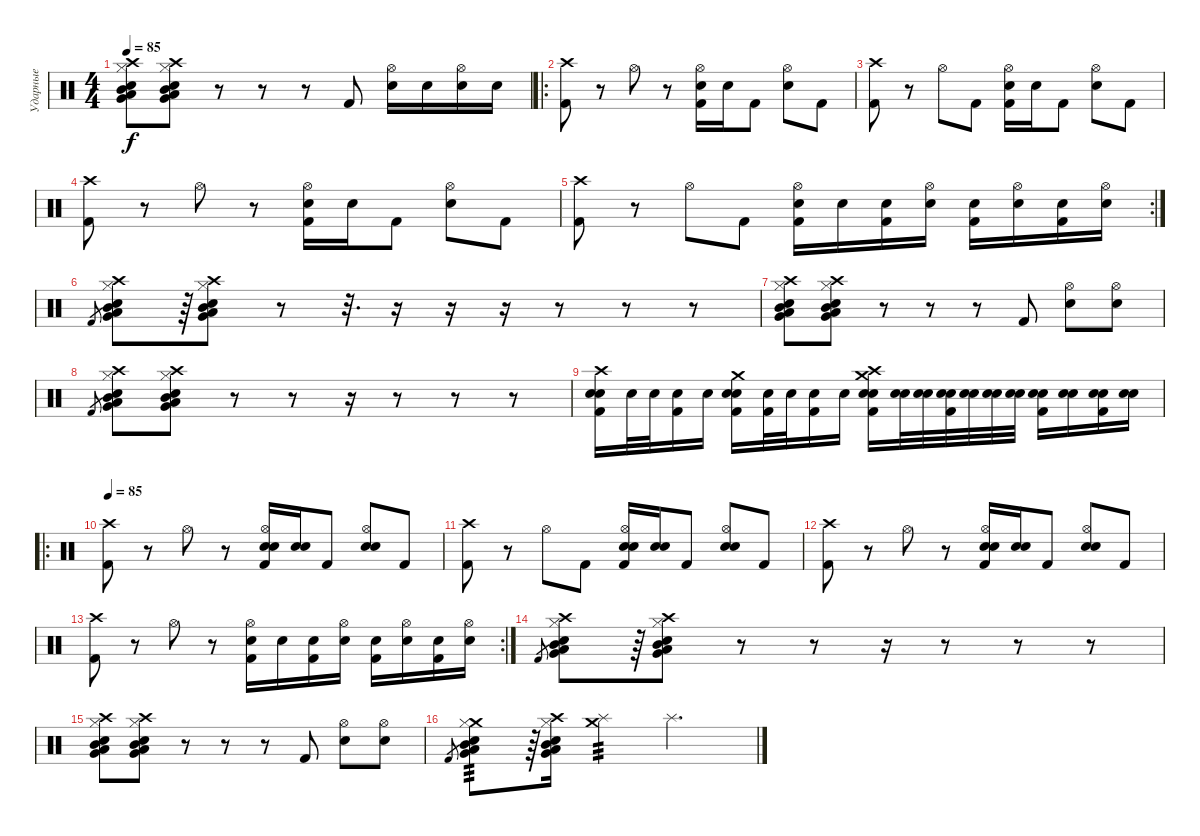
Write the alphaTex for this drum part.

\track ("Ударные" "Ударные") {instrument percussion}
\staff {score}
\articulation defaults
\ts (4 4)
\tempo 85
\clef neutral
\ks c
("Crash high (hit)" "Very Low Tom (hit)" "Low Floor Tom (hit)" "Mid Tom (hit)" "Electric Snare (hit)" "Hi-Hat (closed)").8{dy f} ("Crash high (hit)" "Very Low Tom (hit)" "Low Floor Tom (hit)" "Mid Tom (hit)" "Electric Snare (hit)" "Hi-Hat (closed)").8 r.8 r.8 r.8 "Kick (hit) 2".8 ("Hi-Hat (open)" "Electric Snare (hit)").16 "Electric Snare (hit)".16 ("Hi-Hat (open)" "Electric Snare (hit)").16 "Electric Snare (hit)".16 |
\ro
("Crash high (hit)" "Kick (hit) 2").8{volume 14} r.8 "Hi-Hat (open)".8 r.8 ("Hi-Hat (open)" "Electric Snare (hit)" "Kick (hit) 2").16 "Electric Snare (hit)".16 "Kick (hit) 2".8 ("Hi-Hat (open)" "Electric Snare (hit)").8 "Kick (hit) 2".8 |
("Crash high (hit)" "Kick (hit) 2").8 r.8 "Hi-Hat (open)".8 "Kick (hit) 2".8 ("Hi-Hat (open)" "Electric Snare (hit)" "Kick (hit) 2").16 "Electric Snare (hit)".16 "Kick (hit) 2".8 ("Hi-Hat (open)" "Electric Snare (hit)").8 "Kick (hit) 2".8 |
("Crash high (hit)" "Kick (hit) 2").8 r.8 "Hi-Hat (open)".8 r.8 ("Hi-Hat (open)" "Electric Snare (hit)" "Kick (hit) 2").16 "Electric Snare (hit)".16 "Kick (hit) 2".8 ("Hi-Hat (open)" "Electric Snare (hit)").8 "Kick (hit) 2".8 |
\rc 2
("Crash high (hit)" "Kick (hit) 2").8 r.8 "Hi-Hat (open)".8 "Kick (hit) 2".8 ("Hi-Hat (open)" "Electric Snare (hit)" "Kick (hit) 2").16 "Electric Snare (hit)".16 ("Electric Snare (hit)" "Kick (hit) 2").16 ("Hi-Hat (open)" "Electric Snare (hit)").16 ("Electric Snare (hit)" "Kick (hit) 2").16 ("Hi-Hat (open)" "Electric Snare (hit)").16 ("Electric Snare (hit)" "Kick (hit) 2").16 ("Hi-Hat (open)" "Electric Snare (hit)").16 |
"Kick (hit) 2".8{gr} ("Crash high (hit)" "Very Low Tom (hit)" "Low Floor Tom (hit)" "Mid Tom (hit)" "Electric Snare (hit)" "Hi-Hat (closed)").8 r.64 ("Crash high (hit)" "Very Low Tom (hit)" "Low Floor Tom (hit)" "Mid Tom (hit)" "Electric Snare (hit)" "Hi-Hat (closed)").8 r.8 r.32{d} r.16 r.16 r.16 r.8 r.8 r.8 |
("Crash high (hit)" "Very Low Tom (hit)" "Low Floor Tom (hit)" "Mid Tom (hit)" "Electric Snare (hit)" "Hi-Hat (closed)").8 ("Crash high (hit)" "Very Low Tom (hit)" "Low Floor Tom (hit)" "Mid Tom (hit)" "Electric Snare (hit)" "Hi-Hat (closed)").8 r.8 r.8 r.8 "Kick (hit) 2".8 ("Hi-Hat (open)" "Electric Snare (hit)").8 ("Hi-Hat (open)" "Electric Snare (hit)").8 |
"Kick (hit) 2".8{gr} ("Crash high (hit)" "Very Low Tom (hit)" "Low Floor Tom (hit)" "Mid Tom (hit)" "Electric Snare (hit)" "Hi-Hat (closed)").8 ("Crash high (hit)" "Very Low Tom (hit)" "Low Floor Tom (hit)" "Mid Tom (hit)" "Electric Snare (hit)" "Hi-Hat (closed)").8 r.8 r.8 r.16 r.8 r.8 r.8 |
("Crash high (hit)" "Electric Snare (hit)" "Snare (hit) 2" "Kick (hit) 2").16 "Electric Snare (hit)".32 "Electric Snare (hit)".32 ("Electric Snare (hit)" "Kick (hit) 2").16 "Electric Snare (hit)".16 ("Crash medium (hit)" "Electric Snare (hit)" "Snare (hit) 2" "Kick (hit) 2").16 ("Electric Snare (hit)" "Kick (hit) 2").32 "Electric Snare (hit)".32 ("Electric Snare (hit)" "Kick (hit) 2").16 "Electric Snare (hit)".16 ("Crash high (hit)" "Crash medium (hit)" "Electric Snare (hit)" "Snare (hit) 2" "Kick (hit) 2").16 ("Electric Snare (hit)" "Snare (hit) 2").32 ("Electric Snare (hit)" "Snare (hit) 2").32 ("Electric Snare (hit)" "Snare (hit) 2" "Kick (hit) 2").32 ("Electric Snare (hit)" "Snare (hit) 2").32 ("Electric Snare (hit)" "Snare (hit) 2").32 ("Electric Snare (hit)" "Snare (hit) 2").32 ("Electric Snare (hit)" "Snare (hit) 2" "Kick (hit) 2").16 ("Electric Snare (hit)" "Snare (hit) 2").16 ("Electric Snare (hit)" "Snare (hit) 2" "Kick (hit) 2").16 ("Electric Snare (hit)" "Snare (hit) 2").16 |
\ro
\tempo 85
("Crash high (hit)" "Kick (hit) 2").8{volume 14} r.8 "Hi-Hat (open)".8 r.8 ("Hi-Hat (open)" "Electric Snare (hit)" "Snare (hit) 2" "Kick (hit) 2").16 ("Electric Snare (hit)" "Snare (hit) 2").16 "Kick (hit) 2".8 ("Hi-Hat (open)" "Electric Snare (hit)" "Snare (hit) 2").8 "Kick (hit) 2".8 |
("Crash high (hit)" "Kick (hit) 2").8 r.8 "Hi-Hat (open)".8 "Kick (hit) 2".8 ("Hi-Hat (open)" "Electric Snare (hit)" "Snare (hit) 2" "Kick (hit) 2").16 ("Electric Snare (hit)" "Snare (hit) 2").16 "Kick (hit) 2".8 ("Hi-Hat (open)" "Electric Snare (hit)" "Snare (hit) 2").8 "Kick (hit) 2".8 |
("Crash high (hit)" "Kick (hit) 2").8 r.8 "Hi-Hat (open)".8 r.8 ("Hi-Hat (open)" "Electric Snare (hit)" "Snare (hit) 2" "Kick (hit) 2").16 ("Electric Snare (hit)" "Snare (hit) 2").16 "Kick (hit) 2".8 ("Hi-Hat (open)" "Electric Snare (hit)" "Snare (hit) 2").8 "Kick (hit) 2".8 |
\rc 2
("Crash high (hit)" "Kick (hit) 2").8 r.8 "Hi-Hat (open)".8 r.8 ("Hi-Hat (open)" "Electric Snare (hit)" "Kick (hit) 2").16 "Electric Snare (hit)".16 ("Electric Snare (hit)" "Kick (hit) 2").16 ("Hi-Hat (open)" "Electric Snare (hit)").16 ("Electric Snare (hit)" "Kick (hit) 2").16 ("Hi-Hat (open)" "Electric Snare (hit)").16 ("Electric Snare (hit)" "Kick (hit) 2").16 ("Hi-Hat (open)" "Electric Snare (hit)").16 |
"Kick (hit) 2".8{gr} ("Crash high (hit)" "Very Low Tom (hit)" "Low Floor Tom (hit)" "Mid Tom (hit)" "Electric Snare (hit)" "Hi-Hat (closed)").8 r.64 ("Crash high (hit)" "Very Low Tom (hit)" "Low Floor Tom (hit)" "Mid Tom (hit)" "Electric Snare (hit)" "Hi-Hat (closed)").8 r.8 r.8 r.16 r.8 r.8 r.8 |
("Crash high (hit)" "Very Low Tom (hit)" "Low Floor Tom (hit)" "Mid Tom (hit)" "Electric Snare (hit)" "Hi-Hat (closed)").8 ("Crash high (hit)" "Very Low Tom (hit)" "Low Floor Tom (hit)" "Mid Tom (hit)" "Electric Snare (hit)" "Hi-Hat (closed)").8 r.8 r.8 r.8 "Kick (hit) 2".8 ("Hi-Hat (open)" "Electric Snare (hit)").8 ("Hi-Hat (open)" "Electric Snare (hit)").8 |
"Kick (hit) 2".8{gr} ("Crash medium (hit)" "Very Low Tom (hit)" "Low Floor Tom (hit)" "Mid Tom (hit)" "Electric Snare (hit)" "Hi-Hat (closed)").8{tp 3} r.64 ("Crash high (hit)" "Very Low Tom (hit)" "Low Floor Tom (hit)" "Mid Tom (hit)" "Electric Snare (hit)" "Hi-Hat (closed)").16 ("Crash medium (hit)" "Splash (hit)").4{tp 3} "Splash (hit)".2{d}
